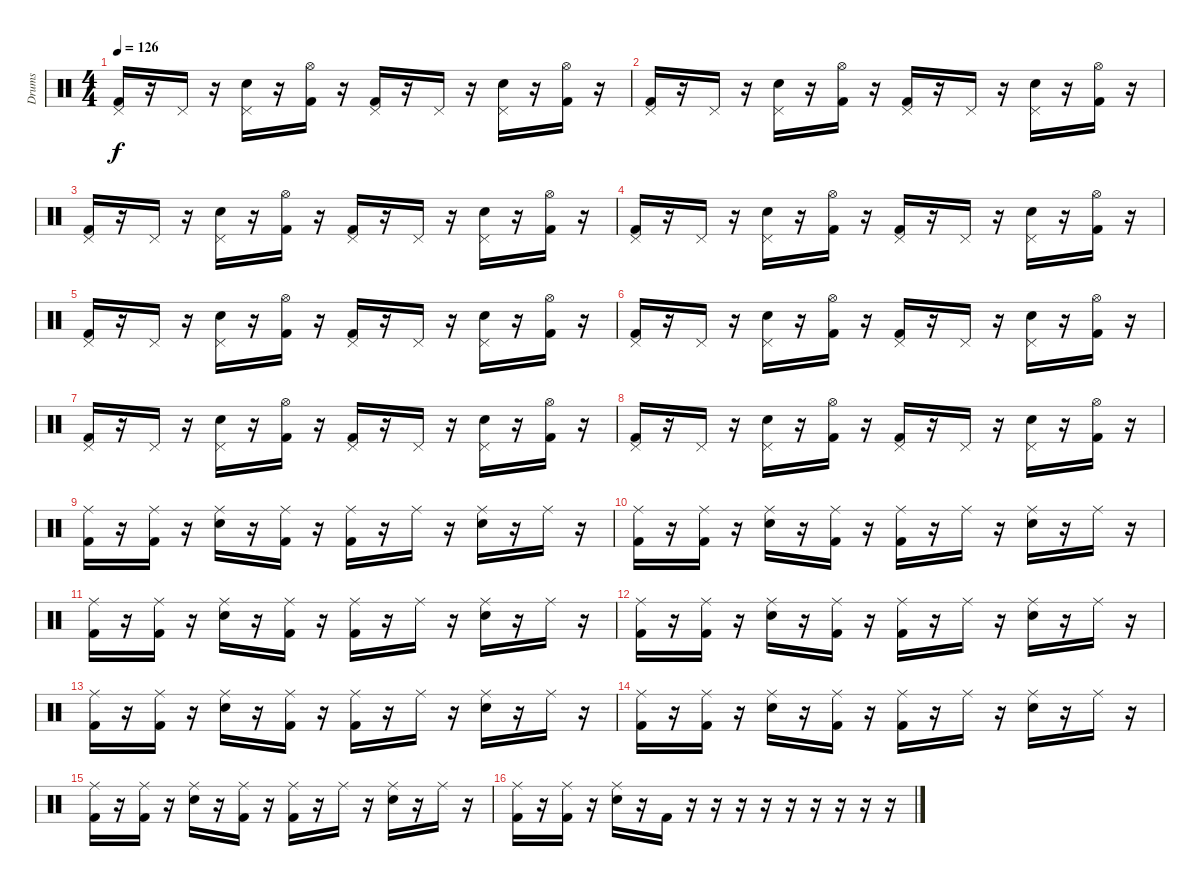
\track ("Drums" "Drums") {instrument percussion}
\staff {score}
\articulation defaults
\ts (4 4)
\tempo 126
\clef neutral
\ks c
("Pedal Hi-Hat (hit)" "Kick (hit) 2").16{dy f} r.16 "Pedal Hi-Hat (hit)".16 r.16 ("Pedal Hi-Hat (hit)" "Electric Snare (hit)").16 r.16 ("Hi-Hat (open)" "Kick (hit) 2").16 r.16 ("Pedal Hi-Hat (hit)" "Kick (hit) 2").16 r.16 "Pedal Hi-Hat (hit)".16 r.16 ("Pedal Hi-Hat (hit)" "Electric Snare (hit)").16 r.16 ("Hi-Hat (open)" "Kick (hit) 2").16 r.16 |
("Pedal Hi-Hat (hit)" "Kick (hit) 2").16 r.16 "Pedal Hi-Hat (hit)".16 r.16 ("Pedal Hi-Hat (hit)" "Electric Snare (hit)").16 r.16 ("Hi-Hat (open)" "Kick (hit) 2").16 r.16 ("Pedal Hi-Hat (hit)" "Kick (hit) 2").16 r.16 "Pedal Hi-Hat (hit)".16 r.16 ("Pedal Hi-Hat (hit)" "Electric Snare (hit)").16 r.16 ("Hi-Hat (open)" "Kick (hit) 2").16 r.16 |
("Pedal Hi-Hat (hit)" "Kick (hit) 2").16 r.16 "Pedal Hi-Hat (hit)".16 r.16 ("Pedal Hi-Hat (hit)" "Electric Snare (hit)").16 r.16 ("Hi-Hat (open)" "Kick (hit) 2").16 r.16 ("Pedal Hi-Hat (hit)" "Kick (hit) 2").16 r.16 "Pedal Hi-Hat (hit)".16 r.16 ("Pedal Hi-Hat (hit)" "Electric Snare (hit)").16 r.16 ("Hi-Hat (open)" "Kick (hit) 2").16 r.16 |
("Pedal Hi-Hat (hit)" "Kick (hit) 2").16 r.16 "Pedal Hi-Hat (hit)".16 r.16 ("Pedal Hi-Hat (hit)" "Electric Snare (hit)").16 r.16 ("Hi-Hat (open)" "Kick (hit) 2").16 r.16 ("Pedal Hi-Hat (hit)" "Kick (hit) 2").16 r.16 "Pedal Hi-Hat (hit)".16 r.16 ("Pedal Hi-Hat (hit)" "Electric Snare (hit)").16 r.16 ("Hi-Hat (open)" "Kick (hit) 2").16 r.16 |
("Pedal Hi-Hat (hit)" "Kick (hit) 2").16 r.16 "Pedal Hi-Hat (hit)".16 r.16 ("Pedal Hi-Hat (hit)" "Electric Snare (hit)").16 r.16 ("Hi-Hat (open)" "Kick (hit) 2").16 r.16 ("Pedal Hi-Hat (hit)" "Kick (hit) 2").16 r.16 "Pedal Hi-Hat (hit)".16 r.16 ("Pedal Hi-Hat (hit)" "Electric Snare (hit)").16 r.16 ("Hi-Hat (open)" "Kick (hit) 2").16 r.16 |
("Pedal Hi-Hat (hit)" "Kick (hit) 2").16 r.16 "Pedal Hi-Hat (hit)".16 r.16 ("Pedal Hi-Hat (hit)" "Electric Snare (hit)").16 r.16 ("Hi-Hat (open)" "Kick (hit) 2").16 r.16 ("Pedal Hi-Hat (hit)" "Kick (hit) 2").16 r.16 "Pedal Hi-Hat (hit)".16 r.16 ("Pedal Hi-Hat (hit)" "Electric Snare (hit)").16 r.16 ("Hi-Hat (open)" "Kick (hit) 2").16 r.16 |
("Pedal Hi-Hat (hit)" "Kick (hit) 2").16 r.16 "Pedal Hi-Hat (hit)".16 r.16 ("Pedal Hi-Hat (hit)" "Electric Snare (hit)").16 r.16 ("Hi-Hat (open)" "Kick (hit) 2").16 r.16 ("Pedal Hi-Hat (hit)" "Kick (hit) 2").16 r.16 "Pedal Hi-Hat (hit)".16 r.16 ("Pedal Hi-Hat (hit)" "Electric Snare (hit)").16 r.16 ("Hi-Hat (open)" "Kick (hit) 2").16 r.16 |
("Pedal Hi-Hat (hit)" "Kick (hit) 2").16 r.16 "Pedal Hi-Hat (hit)".16 r.16 ("Pedal Hi-Hat (hit)" "Electric Snare (hit)").16 r.16 ("Hi-Hat (open)" "Kick (hit) 2").16 r.16 ("Pedal Hi-Hat (hit)" "Kick (hit) 2").16 r.16 "Pedal Hi-Hat (hit)".16 r.16 ("Pedal Hi-Hat (hit)" "Electric Snare (hit)").16 r.16 ("Hi-Hat (open)" "Kick (hit) 2").16 r.16 |
("Ride (middle)" "Kick (hit) 2").16 r.16 ("Ride (middle)" "Kick (hit) 2").16 r.16 ("Ride (middle)" "Electric Snare (hit)").16 r.16 ("Ride (middle)" "Kick (hit) 2").16 r.16 ("Ride (middle)" "Kick (hit) 2").16 r.16 "Ride (middle)".16 r.16 ("Ride (middle)" "Electric Snare (hit)").16 r.16 "Ride (middle)".16 r.16 |
("Ride (middle)" "Kick (hit) 2").16 r.16 ("Ride (middle)" "Kick (hit) 2").16 r.16 ("Ride (middle)" "Electric Snare (hit)").16 r.16 ("Ride (middle)" "Kick (hit) 2").16 r.16 ("Ride (middle)" "Kick (hit) 2").16 r.16 "Ride (middle)".16 r.16 ("Ride (middle)" "Electric Snare (hit)").16 r.16 "Ride (middle)".16 r.16 |
("Ride (middle)" "Kick (hit) 2").16 r.16 ("Ride (middle)" "Kick (hit) 2").16 r.16 ("Ride (middle)" "Electric Snare (hit)").16 r.16 ("Ride (middle)" "Kick (hit) 2").16 r.16 ("Ride (middle)" "Kick (hit) 2").16 r.16 "Ride (middle)".16 r.16 ("Ride (middle)" "Electric Snare (hit)").16 r.16 "Ride (middle)".16 r.16 |
("Ride (middle)" "Kick (hit) 2").16 r.16 ("Ride (middle)" "Kick (hit) 2").16 r.16 ("Ride (middle)" "Electric Snare (hit)").16 r.16 ("Ride (middle)" "Kick (hit) 2").16 r.16 ("Ride (middle)" "Kick (hit) 2").16 r.16 "Ride (middle)".16 r.16 ("Ride (middle)" "Electric Snare (hit)").16 r.16 "Ride (middle)".16 r.16 |
("Ride (middle)" "Kick (hit) 2").16 r.16 ("Ride (middle)" "Kick (hit) 2").16 r.16 ("Ride (middle)" "Electric Snare (hit)").16 r.16 ("Ride (middle)" "Kick (hit) 2").16 r.16 ("Ride (middle)" "Kick (hit) 2").16 r.16 "Ride (middle)".16 r.16 ("Ride (middle)" "Electric Snare (hit)").16 r.16 "Ride (middle)".16 r.16 |
("Ride (middle)" "Kick (hit) 2").16 r.16 ("Ride (middle)" "Kick (hit) 2").16 r.16 ("Ride (middle)" "Electric Snare (hit)").16 r.16 ("Ride (middle)" "Kick (hit) 2").16 r.16 ("Ride (middle)" "Kick (hit) 2").16 r.16 "Ride (middle)".16 r.16 ("Ride (middle)" "Electric Snare (hit)").16 r.16 "Ride (middle)".16 r.16 |
("Ride (middle)" "Kick (hit) 2").16 r.16 ("Ride (middle)" "Kick (hit) 2").16 r.16 ("Ride (middle)" "Electric Snare (hit)").16 r.16 ("Ride (middle)" "Kick (hit) 2").16 r.16 ("Ride (middle)" "Kick (hit) 2").16 r.16 "Ride (middle)".16 r.16 ("Ride (middle)" "Electric Snare (hit)").16 r.16 "Ride (middle)".16 r.16 |
("Ride (middle)" "Kick (hit) 2").16 r.16 ("Ride (middle)" "Kick (hit) 2").16 r.16 ("Ride (middle)" "Electric Snare (hit)").16 r.16 "Kick (hit) 2".16 r.16 r.16 r.16 r.16 r.16 r.16 r.16 r.16 r.16
